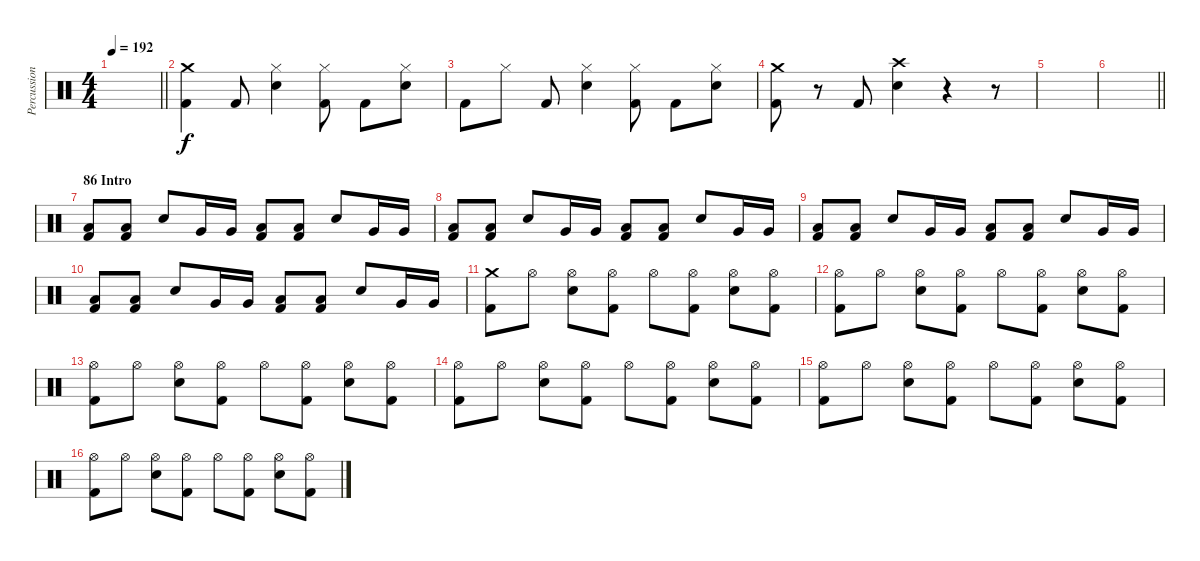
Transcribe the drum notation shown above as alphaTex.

\track ("Percussion" "Percussion") {instrument percussion}
\staff {score}
\articulation defaults
\ts (4 4)
\tempo 192
\clef neutral
\barLineRight lightlight
\ks c
|
("Crash medium (hit)" "Kick (hit) 2").4 "Kick (hit) 2".8 ("Hi-Hat (closed)" "Electric Snare (hit)").4 ("Hi-Hat (closed)" "Kick (hit) 2").8 "Kick (hit) 2".8 ("Hi-Hat (closed)" "Electric Snare (hit)").8 |
"Kick (hit) 2".8 "Hi-Hat (closed)".8 "Kick (hit) 2".8 ("Hi-Hat (closed)" "Electric Snare (hit)").4 ("Hi-Hat (closed)" "Kick (hit) 2").8 "Kick (hit) 2".8 ("Hi-Hat (closed)" "Electric Snare (hit)").8 |
("Crash medium (hit)" "Kick (hit) 2").8 r.8 "Kick (hit) 2".8 ("Crash high (hit)" "Electric Snare (hit)").4 r.4 r.8 |
|
\barLineRight lightlight
|
\section ("" "86 Intro")
("Low Floor Tom (hit)" "Kick (hit) 2").8 ("Low Floor Tom (hit)" "Kick (hit) 2").8 "Electric Snare (hit)".8 "Very Low Tom (hit)".16 "Very Low Tom (hit)".16 ("Low Floor Tom (hit)" "Kick (hit) 2").8 ("Low Floor Tom (hit)" "Kick (hit) 2").8 "Electric Snare (hit)".8 "Very Low Tom (hit)".16 "Very Low Tom (hit)".16 |
("Low Floor Tom (hit)" "Kick (hit) 2").8 ("Low Floor Tom (hit)" "Kick (hit) 2").8 "Electric Snare (hit)".8 "Very Low Tom (hit)".16 "Very Low Tom (hit)".16 ("Low Floor Tom (hit)" "Kick (hit) 2").8 ("Low Floor Tom (hit)" "Kick (hit) 2").8 "Electric Snare (hit)".8 "Very Low Tom (hit)".16 "Very Low Tom (hit)".16 |
("Low Floor Tom (hit)" "Kick (hit) 2").8 ("Low Floor Tom (hit)" "Kick (hit) 2").8 "Electric Snare (hit)".8 "Very Low Tom (hit)".16 "Very Low Tom (hit)".16 ("Low Floor Tom (hit)" "Kick (hit) 2").8 ("Low Floor Tom (hit)" "Kick (hit) 2").8 "Electric Snare (hit)".8 "Very Low Tom (hit)".16 "Very Low Tom (hit)".16 |
("Low Floor Tom (hit)" "Kick (hit) 2").8 ("Low Floor Tom (hit)" "Kick (hit) 2").8 "Electric Snare (hit)".8 "Very Low Tom (hit)".16 "Very Low Tom (hit)".16 ("Low Floor Tom (hit)" "Kick (hit) 2").8 ("Low Floor Tom (hit)" "Kick (hit) 2").8 "Electric Snare (hit)".8 "Very Low Tom (hit)".16 "Very Low Tom (hit)".16 |
("Crash medium (hit)" "Kick (hit) 2").8 "Hi-Hat (open)".8 ("Hi-Hat (open)" "Electric Snare (hit)").8 ("Hi-Hat (open)" "Kick (hit) 2").8 "Hi-Hat (open)".8 ("Hi-Hat (open)" "Kick (hit) 2").8 ("Hi-Hat (open)" "Electric Snare (hit)").8 ("Hi-Hat (open)" "Kick (hit) 2").8 |
("Hi-Hat (open)" "Kick (hit) 2").8 "Hi-Hat (open)".8 ("Hi-Hat (open)" "Electric Snare (hit)").8 ("Hi-Hat (open)" "Kick (hit) 2").8 "Hi-Hat (open)".8 ("Hi-Hat (open)" "Kick (hit) 2").8 ("Hi-Hat (open)" "Electric Snare (hit)").8 ("Hi-Hat (open)" "Kick (hit) 2").8 |
("Hi-Hat (open)" "Kick (hit) 2").8 "Hi-Hat (open)".8 ("Hi-Hat (open)" "Electric Snare (hit)").8 ("Hi-Hat (open)" "Kick (hit) 2").8 "Hi-Hat (open)".8 ("Hi-Hat (open)" "Kick (hit) 2").8 ("Hi-Hat (open)" "Electric Snare (hit)").8 ("Hi-Hat (open)" "Kick (hit) 2").8 |
("Hi-Hat (open)" "Kick (hit) 2").8 "Hi-Hat (open)".8 ("Hi-Hat (open)" "Electric Snare (hit)").8 ("Hi-Hat (open)" "Kick (hit) 2").8 "Hi-Hat (open)".8 ("Hi-Hat (open)" "Kick (hit) 2").8 ("Hi-Hat (open)" "Electric Snare (hit)").8 ("Hi-Hat (open)" "Kick (hit) 2").8 |
("Hi-Hat (open)" "Kick (hit) 2").8 "Hi-Hat (open)".8 ("Hi-Hat (open)" "Electric Snare (hit)").8 ("Hi-Hat (open)" "Kick (hit) 2").8 "Hi-Hat (open)".8 ("Hi-Hat (open)" "Kick (hit) 2").8 ("Hi-Hat (open)" "Electric Snare (hit)").8 ("Hi-Hat (open)" "Kick (hit) 2").8 |
("Hi-Hat (open)" "Kick (hit) 2").8 "Hi-Hat (open)".8 ("Hi-Hat (open)" "Electric Snare (hit)").8 ("Hi-Hat (open)" "Kick (hit) 2").8 "Hi-Hat (open)".8 ("Hi-Hat (open)" "Kick (hit) 2").8 ("Hi-Hat (open)" "Electric Snare (hit)").8 ("Hi-Hat (open)" "Kick (hit) 2").8
